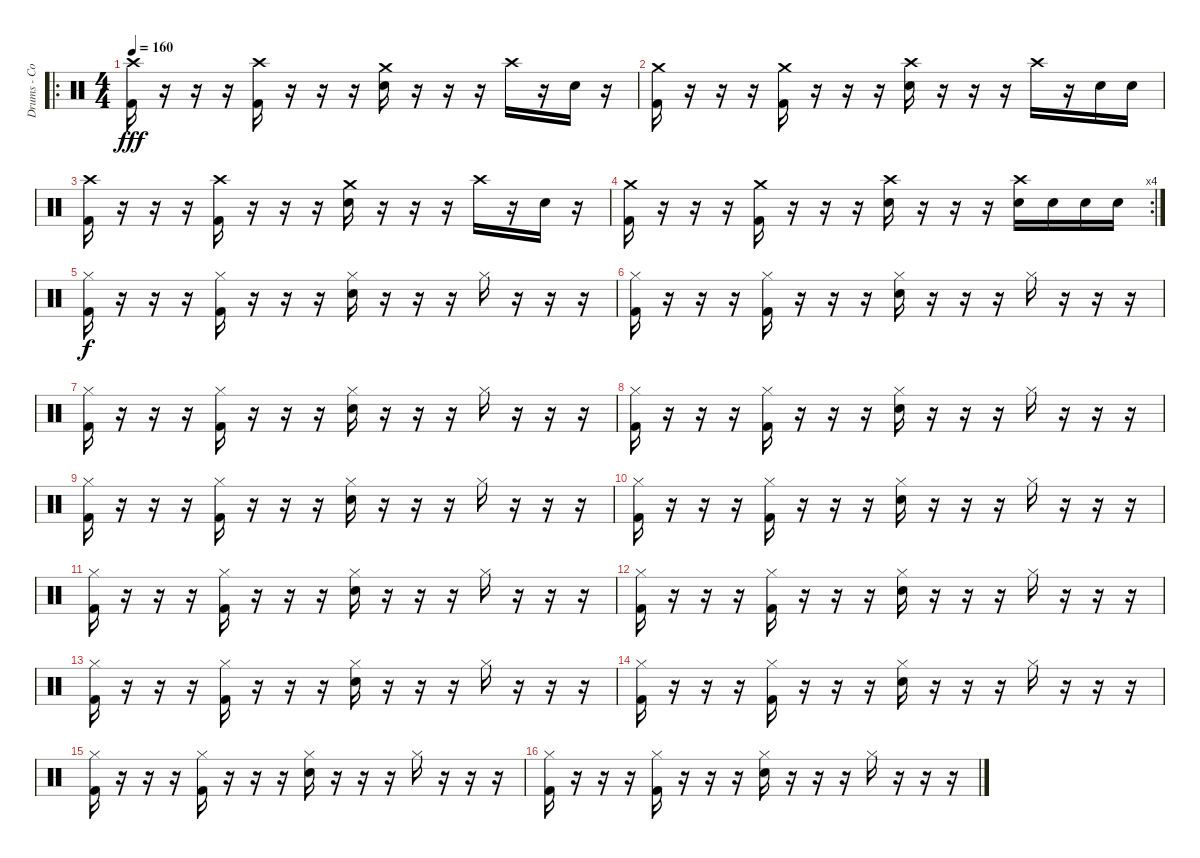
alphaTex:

\track ("Drums - Colby" "Drums - Co") {instrument percussion}
\staff {score}
\articulation defaults
\ro
\ts (4 4)
\tempo 160
\clef neutral
\ks c
("Kick (hit) 2" "Crash high (hit)").16{dy fff} r.16 r.16 r.16 ("Kick (hit) 2" "Crash high (hit)").16 r.16 r.16 r.16 ("Snare (hit) 2" "Crash medium (hit)").16 r.16 r.16 r.16 "Crash high (hit)".16 r.16 "Snare (hit) 2".16 r.16 |
("Kick (hit) 2" "Crash medium (hit)").16 r.16 r.16 r.16 ("Kick (hit) 2" "Crash medium (hit)").16 r.16 r.16 r.16 ("Snare (hit) 2" "Crash high (hit)").16 r.16 r.16 r.16 "Crash high (hit)".16 r.16 "Snare (hit) 2".16 "Snare (hit) 2".16 |
("Kick (hit) 2" "Crash high (hit)").16 r.16 r.16 r.16 ("Kick (hit) 2" "Crash high (hit)").16 r.16 r.16 r.16 ("Snare (hit) 2" "Crash medium (hit)").16 r.16 r.16 r.16 "Crash high (hit)".16 r.16 "Snare (hit) 2".16 r.16 |
\rc 4
("Kick (hit) 2" "Crash medium (hit)").16 r.16 r.16 r.16 ("Kick (hit) 2" "Crash medium (hit)").16 r.16 r.16 r.16 ("Snare (hit) 2" "Crash high (hit)").16 r.16 r.16 r.16 ("Snare (hit) 2" "Crash high (hit)").16 "Snare (hit) 2".16 "Snare (hit) 2".16 "Snare (hit) 2".16 |
("Kick (hit) 2" "Hi-Hat (closed)").16{dy f} r.16 r.16 r.16 ("Kick (hit) 2" "Hi-Hat (closed)").16 r.16 r.16 r.16 ("Snare (hit) 2" "Hi-Hat (closed)").16 r.16 r.16 r.16 "Hi-Hat (closed)".16 r.16 r.16 r.16 |
("Kick (hit) 2" "Hi-Hat (closed)").16 r.16 r.16 r.16 ("Kick (hit) 2" "Hi-Hat (closed)").16 r.16 r.16 r.16 ("Snare (hit) 2" "Hi-Hat (closed)").16 r.16 r.16 r.16 "Hi-Hat (closed)".16 r.16 r.16 r.16 |
("Kick (hit) 2" "Hi-Hat (closed)").16 r.16 r.16 r.16 ("Kick (hit) 2" "Hi-Hat (closed)").16 r.16 r.16 r.16 ("Snare (hit) 2" "Hi-Hat (closed)").16 r.16 r.16 r.16 "Hi-Hat (closed)".16 r.16 r.16 r.16 |
("Kick (hit) 2" "Hi-Hat (closed)").16 r.16 r.16 r.16 ("Kick (hit) 2" "Hi-Hat (closed)").16 r.16 r.16 r.16 ("Snare (hit) 2" "Hi-Hat (closed)").16 r.16 r.16 r.16 "Hi-Hat (closed)".16 r.16 r.16 r.16 |
("Kick (hit) 2" "Hi-Hat (closed)").16 r.16 r.16 r.16 ("Kick (hit) 2" "Hi-Hat (closed)").16 r.16 r.16 r.16 ("Snare (hit) 2" "Hi-Hat (closed)").16 r.16 r.16 r.16 "Hi-Hat (closed)".16 r.16 r.16 r.16 |
("Kick (hit) 2" "Hi-Hat (closed)").16 r.16 r.16 r.16 ("Kick (hit) 2" "Hi-Hat (closed)").16 r.16 r.16 r.16 ("Snare (hit) 2" "Hi-Hat (closed)").16 r.16 r.16 r.16 "Hi-Hat (closed)".16 r.16 r.16 r.16 |
("Kick (hit) 2" "Hi-Hat (closed)").16 r.16 r.16 r.16 ("Kick (hit) 2" "Hi-Hat (closed)").16 r.16 r.16 r.16 ("Snare (hit) 2" "Hi-Hat (closed)").16 r.16 r.16 r.16 "Hi-Hat (closed)".16 r.16 r.16 r.16 |
("Kick (hit) 2" "Hi-Hat (closed)").16 r.16 r.16 r.16 ("Kick (hit) 2" "Hi-Hat (closed)").16 r.16 r.16 r.16 ("Snare (hit) 2" "Hi-Hat (closed)").16 r.16 r.16 r.16 "Hi-Hat (closed)".16 r.16 r.16 r.16 |
("Kick (hit) 2" "Hi-Hat (closed)").16 r.16 r.16 r.16 ("Kick (hit) 2" "Hi-Hat (closed)").16 r.16 r.16 r.16 ("Snare (hit) 2" "Hi-Hat (closed)").16 r.16 r.16 r.16 "Hi-Hat (closed)".16 r.16 r.16 r.16 |
("Kick (hit) 2" "Hi-Hat (closed)").16 r.16 r.16 r.16 ("Kick (hit) 2" "Hi-Hat (closed)").16 r.16 r.16 r.16 ("Snare (hit) 2" "Hi-Hat (closed)").16 r.16 r.16 r.16 "Hi-Hat (closed)".16 r.16 r.16 r.16 |
("Kick (hit) 2" "Hi-Hat (closed)").16 r.16 r.16 r.16 ("Kick (hit) 2" "Hi-Hat (closed)").16 r.16 r.16 r.16 ("Snare (hit) 2" "Hi-Hat (closed)").16 r.16 r.16 r.16 "Hi-Hat (closed)".16 r.16 r.16 r.16 |
("Kick (hit) 2" "Hi-Hat (closed)").16 r.16 r.16 r.16 ("Kick (hit) 2" "Hi-Hat (closed)").16 r.16 r.16 r.16 ("Snare (hit) 2" "Hi-Hat (closed)").16 r.16 r.16 r.16 "Hi-Hat (closed)".16 r.16 r.16 r.16
